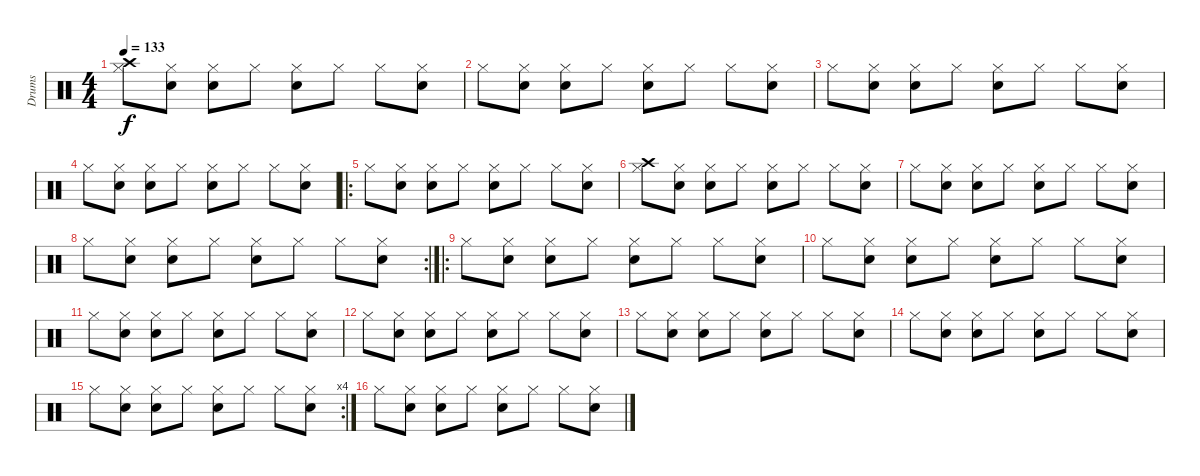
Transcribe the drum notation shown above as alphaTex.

\track ("Drums" "Drums") {instrument percussion}
\staff {score}
\articulation defaults
\ts (4 4)
\tempo 133
\clef neutral
\ks c
("Hi-Hat (closed)" "Crash high (hit)").8{dy f} ("Hi-Hat (closed)" "Snare (hit) 2").8 ("Hi-Hat (closed)" "Snare (hit) 2").8 "Hi-Hat (closed)".8 ("Hi-Hat (closed)" "Electric Snare (hit)").8 "Hi-Hat (closed)".8 "Hi-Hat (closed)".8 ("Hi-Hat (closed)" "Electric Snare (hit)").8 |
"Hi-Hat (closed)".8 ("Hi-Hat (closed)" "Snare (hit) 2").8 ("Hi-Hat (closed)" "Snare (hit) 2").8 "Hi-Hat (closed)".8 ("Hi-Hat (closed)" "Electric Snare (hit)").8 "Hi-Hat (closed)".8 "Hi-Hat (closed)".8 ("Hi-Hat (closed)" "Electric Snare (hit)").8 |
"Hi-Hat (closed)".8 ("Hi-Hat (closed)" "Snare (hit) 2").8 ("Hi-Hat (closed)" "Snare (hit) 2").8 "Hi-Hat (closed)".8 ("Hi-Hat (closed)" "Electric Snare (hit)").8 "Hi-Hat (closed)".8 "Hi-Hat (closed)".8 ("Hi-Hat (closed)" "Electric Snare (hit)").8 |
"Hi-Hat (closed)".8 ("Hi-Hat (closed)" "Snare (hit) 2").8 ("Hi-Hat (closed)" "Snare (hit) 2").8 "Hi-Hat (closed)".8 ("Hi-Hat (closed)" "Electric Snare (hit)").8 "Hi-Hat (closed)".8 "Hi-Hat (closed)".8 ("Hi-Hat (closed)" "Electric Snare (hit)").8 |
\ro "Hi-Hat (closed)".8
("Hi-Hat (closed)" "Snare (hit) 2").8 ("Hi-Hat (closed)" "Snare (hit) 2").8 "Hi-Hat (closed)".8 ("Hi-Hat (closed)" "Electric Snare (hit)").8 "Hi-Hat (closed)".8 "Hi-Hat (closed)".8 ("Hi-Hat (closed)" "Electric Snare (hit)").8 |
("Hi-Hat (closed)" "Crash high (hit)").8 ("Hi-Hat (closed)" "Electric Snare (hit)").8 ("Hi-Hat (closed)" "Electric Snare (hit)").8 "Hi-Hat (closed)".8 ("Hi-Hat (closed)" "Snare (hit) 2").8 "Hi-Hat (closed)".8 "Hi-Hat (closed)".8 ("Hi-Hat (closed)" "Snare (hit) 2").8 |
"Hi-Hat (closed)".8 ("Hi-Hat (closed)" "Snare (hit) 2").8 ("Hi-Hat (closed)" "Snare (hit) 2").8 "Hi-Hat (closed)".8 ("Hi-Hat (closed)" "Electric Snare (hit)").8 "Hi-Hat (closed)".8 "Hi-Hat (closed)".8 ("Hi-Hat (closed)" "Electric Snare (hit)").8 |
\rc 2 "Hi-Hat (closed)".8
("Hi-Hat (closed)" "Snare (hit) 2").8 ("Hi-Hat (closed)" "Snare (hit) 2").8 "Hi-Hat (closed)".8 ("Hi-Hat (closed)" "Electric Snare (hit)").8 "Hi-Hat (closed)".8 "Hi-Hat (closed)".8 ("Hi-Hat (closed)" "Electric Snare (hit)").8 |
\ro "Hi-Hat (closed)".8
("Hi-Hat (closed)" "Snare (hit) 2").8 ("Hi-Hat (closed)" "Snare (hit) 2").8 "Hi-Hat (closed)".8 ("Hi-Hat (closed)" "Electric Snare (hit)").8 "Hi-Hat (closed)".8 "Hi-Hat (closed)".8 ("Hi-Hat (closed)" "Electric Snare (hit)").8 |
"Hi-Hat (closed)".8 ("Hi-Hat (closed)" "Snare (hit) 2").8 ("Hi-Hat (closed)" "Snare (hit) 2").8 "Hi-Hat (closed)".8 ("Hi-Hat (closed)" "Electric Snare (hit)").8 "Hi-Hat (closed)".8 "Hi-Hat (closed)".8 ("Hi-Hat (closed)" "Electric Snare (hit)").8 |
"Hi-Hat (closed)".8 ("Hi-Hat (closed)" "Snare (hit) 2").8 ("Hi-Hat (closed)" "Snare (hit) 2").8 "Hi-Hat (closed)".8 ("Hi-Hat (closed)" "Electric Snare (hit)").8 "Hi-Hat (closed)".8 "Hi-Hat (closed)".8 ("Hi-Hat (closed)" "Electric Snare (hit)").8 |
"Hi-Hat (closed)".8 ("Hi-Hat (closed)" "Snare (hit) 2").8 ("Hi-Hat (closed)" "Snare (hit) 2").8 "Hi-Hat (closed)".8 ("Hi-Hat (closed)" "Electric Snare (hit)").8 "Hi-Hat (closed)".8 "Hi-Hat (closed)".8 ("Hi-Hat (closed)" "Electric Snare (hit)").8 |
"Hi-Hat (closed)".8 ("Hi-Hat (closed)" "Snare (hit) 2").8 ("Hi-Hat (closed)" "Snare (hit) 2").8 "Hi-Hat (closed)".8 ("Hi-Hat (closed)" "Electric Snare (hit)").8 "Hi-Hat (closed)".8 "Hi-Hat (closed)".8 ("Hi-Hat (closed)" "Electric Snare (hit)").8 |
"Hi-Hat (closed)".8 ("Hi-Hat (closed)" "Snare (hit) 2").8 ("Hi-Hat (closed)" "Snare (hit) 2").8 "Hi-Hat (closed)".8 ("Hi-Hat (closed)" "Electric Snare (hit)").8 "Hi-Hat (closed)".8 "Hi-Hat (closed)".8 ("Hi-Hat (closed)" "Electric Snare (hit)").8 |
\rc 4 "Hi-Hat (closed)".8
("Hi-Hat (closed)" "Snare (hit) 2").8 ("Hi-Hat (closed)" "Snare (hit) 2").8 "Hi-Hat (closed)".8 ("Hi-Hat (closed)" "Electric Snare (hit)").8 "Hi-Hat (closed)".8 "Hi-Hat (closed)".8 ("Hi-Hat (closed)" "Electric Snare (hit)").8 |
"Hi-Hat (closed)".8 ("Hi-Hat (closed)" "Snare (hit) 2").8 ("Hi-Hat (closed)" "Snare (hit) 2").8 "Hi-Hat (closed)".8 ("Hi-Hat (closed)" "Electric Snare (hit)").8 "Hi-Hat (closed)".8 "Hi-Hat (closed)".8 ("Hi-Hat (closed)" "Electric Snare (hit)").8
